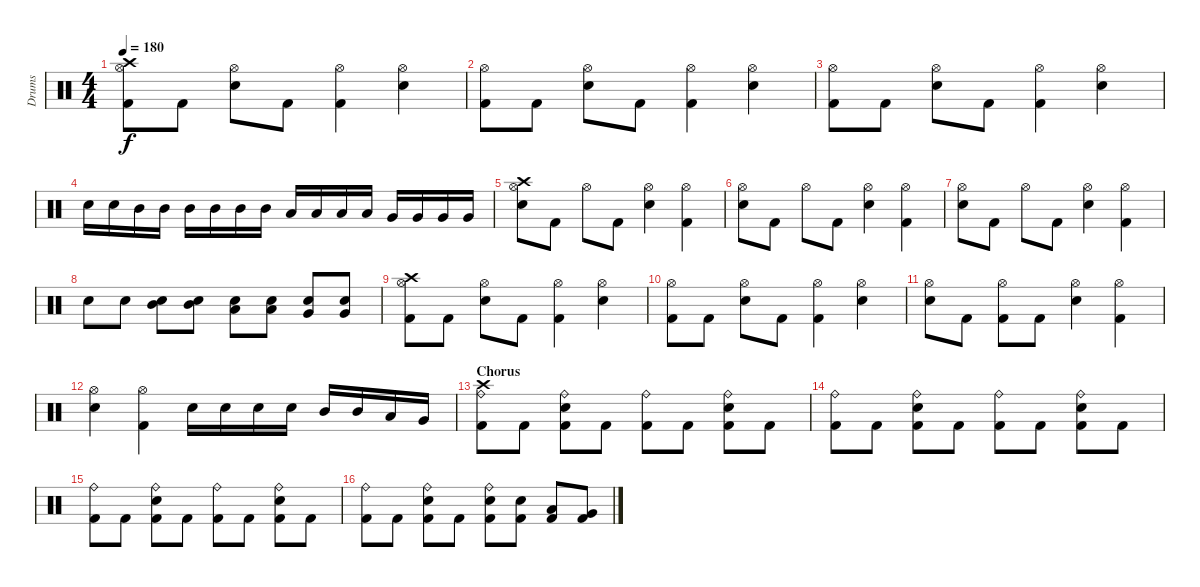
\track ("Drums" "Drums") {instrument percussion}
\staff {score}
\articulation defaults
\ts (4 4)
\tempo 180
\clef neutral
\ks c
("Hi-Hat (open)" "Kick (hit) 2" "Crash high (hit)").8{dy f} "Kick (hit) 2".8 ("Hi-Hat (open)" "Electric Snare (hit)").8 "Kick (hit) 2".8 ("Hi-Hat (open)" "Kick (hit) 2").4 ("Hi-Hat (open)" "Electric Snare (hit)").4 |
("Hi-Hat (open)" "Kick (hit) 2").8 "Kick (hit) 2".8 ("Hi-Hat (open)" "Electric Snare (hit)").8 "Kick (hit) 2".8 ("Hi-Hat (open)" "Kick (hit) 2").4 ("Hi-Hat (open)" "Electric Snare (hit)").4 |
("Hi-Hat (open)" "Kick (hit) 2").8 "Kick (hit) 2".8 ("Hi-Hat (open)" "Electric Snare (hit)").8 "Kick (hit) 2".8 ("Hi-Hat (open)" "Kick (hit) 2").4 ("Hi-Hat (open)" "Electric Snare (hit)").4 |
"Electric Snare (hit)".16 "Electric Snare (hit)".16 "Mid Tom (hit)".16 "Mid Tom (hit)".16 "Mid Tom (hit)".16 "Mid Tom (hit)".16 "Mid Tom (hit)".16 "Mid Tom (hit)".16 "Low Tom (hit)".16 "Low Tom (hit)".16 "Low Tom (hit)".16 "Low Tom (hit)".16 "Very Low Tom (hit)".16 "Very Low Tom (hit)".16 "Very Low Tom (hit)".16 "Very Low Tom (hit)".16 |
("Hi-Hat (open)" "Electric Snare (hit)" "Crash high (hit)").8 "Kick (hit) 2".8 "Hi-Hat (open)".8 "Kick (hit) 2".8 ("Hi-Hat (open)" "Electric Snare (hit)").4 ("Hi-Hat (open)" "Kick (hit) 2").4 |
("Hi-Hat (open)" "Electric Snare (hit)").8 "Kick (hit) 2".8 "Hi-Hat (open)".8 "Kick (hit) 2".8 ("Hi-Hat (open)" "Electric Snare (hit)").4 ("Hi-Hat (open)" "Kick (hit) 2").4 |
("Hi-Hat (open)" "Electric Snare (hit)").8 "Kick (hit) 2".8 "Hi-Hat (open)".8 "Kick (hit) 2".8 ("Hi-Hat (open)" "Electric Snare (hit)").4 ("Hi-Hat (open)" "Kick (hit) 2").4 |
"Electric Snare (hit)".8 "Electric Snare (hit)".8 ("Electric Snare (hit)" "Mid Tom (hit)").8 ("Electric Snare (hit)" "Mid Tom (hit)").8 ("Electric Snare (hit)" "Low Tom (hit)").8 ("Electric Snare (hit)" "Low Tom (hit)").8 ("Electric Snare (hit)" "Very Low Tom (hit)").8 ("Electric Snare (hit)" "Very Low Tom (hit)").8 |
("Hi-Hat (open)" "Kick (hit) 2" "Crash high (hit)").8 "Kick (hit) 2".8 ("Hi-Hat (open)" "Electric Snare (hit)").8 "Kick (hit) 2".8 ("Hi-Hat (open)" "Kick (hit) 2").4 ("Hi-Hat (open)" "Electric Snare (hit)").4 |
("Hi-Hat (open)" "Kick (hit) 2").8 "Kick (hit) 2".8 ("Hi-Hat (open)" "Electric Snare (hit)").8 "Kick (hit) 2".8 ("Hi-Hat (open)" "Kick (hit) 2").4 ("Hi-Hat (open)" "Electric Snare (hit)").4 |
("Hi-Hat (open)" "Electric Snare (hit)").8 "Kick (hit) 2".8 ("Hi-Hat (open)" "Kick (hit) 2").8 "Kick (hit) 2".8 ("Hi-Hat (open)" "Electric Snare (hit)").4 ("Hi-Hat (open)" "Kick (hit) 2").4 |
("Hi-Hat (open)" "Electric Snare (hit)").4 ("Hi-Hat (open)" "Kick (hit) 2").4 "Electric Snare (hit)".16 "Electric Snare (hit)".16 "Electric Snare (hit)".16 "Electric Snare (hit)".16 "Mid Tom (hit)".16 "Mid Tom (hit)".16 "Low Tom (hit)".16 "Very Low Tom (hit)".16 |
\section ("" "Chorus")
("Kick (hit) 2" "Crash high (hit)" "Ride (bell)").8 "Kick (hit) 2".8 ("Kick (hit) 2" "Electric Snare (hit)" "Ride (bell)").8 "Kick (hit) 2".8 ("Kick (hit) 2" "Ride (bell)").8 "Kick (hit) 2".8 ("Kick (hit) 2" "Electric Snare (hit)" "Ride (bell)").8 "Kick (hit) 2".8 |
("Kick (hit) 2" "Ride (bell)").8 "Kick (hit) 2".8 ("Kick (hit) 2" "Electric Snare (hit)" "Ride (bell)").8 "Kick (hit) 2".8 ("Kick (hit) 2" "Ride (bell)").8 "Kick (hit) 2".8 ("Kick (hit) 2" "Electric Snare (hit)" "Ride (bell)").8 "Kick (hit) 2".8 |
("Kick (hit) 2" "Ride (bell)").8 "Kick (hit) 2".8 ("Kick (hit) 2" "Electric Snare (hit)" "Ride (bell)").8 "Kick (hit) 2".8 ("Kick (hit) 2" "Ride (bell)").8 "Kick (hit) 2".8 ("Kick (hit) 2" "Electric Snare (hit)" "Ride (bell)").8 "Kick (hit) 2".8 |
("Kick (hit) 2" "Ride (bell)").8 "Kick (hit) 2".8 ("Kick (hit) 2" "Electric Snare (hit)" "Ride (bell)").8 "Kick (hit) 2".8 ("Kick (hit) 2" "Electric Snare (hit)" "Ride (bell)").8 ("Kick (hit) 2" "Electric Snare (hit)").8 ("Kick (hit) 2" "Low Tom (hit)").8 ("Kick (hit) 2" "Very Low Tom (hit)").8
